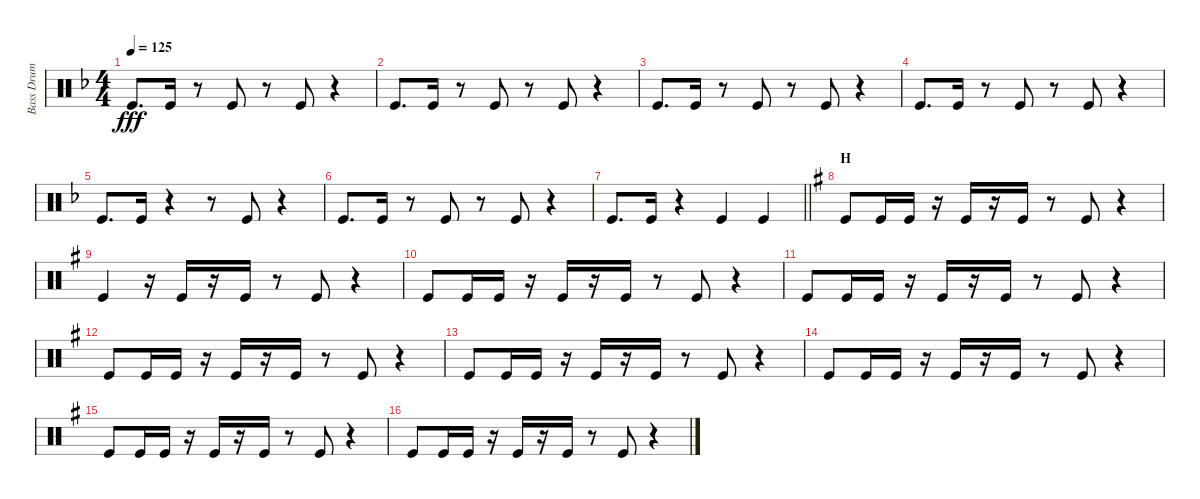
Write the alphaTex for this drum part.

\track ("Bass Drum" "Bass Drum") {instrument percussion}
\staff {score}
\articulation defaults
\ts (4 4)
\tempo 125
\clef neutral
\ks f "Kick (hit)".8{d dy fff} "Kick (hit)".16
r.8 "Kick (hit)".8 r.8 "Kick (hit)".8 r.4 |
"Kick (hit)".8{d} "Kick (hit)".16 r.8 "Kick (hit)".8 r.8 "Kick (hit)".8 r.4 |
"Kick (hit)".8{d} "Kick (hit)".16 r.8 "Kick (hit)".8 r.8 "Kick (hit)".8 r.4 |
"Kick (hit)".8{d} "Kick (hit)".16 r.8 "Kick (hit)".8 r.8 "Kick (hit)".8 r.4 |
"Kick (hit)".8{d} "Kick (hit)".16 r.4 r.8 "Kick (hit)".8 r.4 |
"Kick (hit)".8{d} "Kick (hit)".16 r.8 "Kick (hit)".8 r.8 "Kick (hit)".8 r.4 |
\barLineRight lightlight "Kick (hit)".8{d} "Kick (hit)".16
r.4 "Kick (hit)".4 "Kick (hit)".4 |
\section ("" "H")
\ks g "Kick (hit)".8 "Kick (hit)".16 "Kick (hit)".16
r.16 "Kick (hit)".16 r.16 "Kick (hit)".16 r.8 "Kick (hit)".8 r.4 |
"Kick (hit)".4 r.16 "Kick (hit)".16 r.16 "Kick (hit)".16 r.8 "Kick (hit)".8 r.4 |
"Kick (hit)".8 "Kick (hit)".16 "Kick (hit)".16 r.16 "Kick (hit)".16 r.16 "Kick (hit)".16 r.8 "Kick (hit)".8 r.4 |
"Kick (hit)".8 "Kick (hit)".16 "Kick (hit)".16 r.16 "Kick (hit)".16 r.16 "Kick (hit)".16 r.8 "Kick (hit)".8 r.4 |
"Kick (hit)".8 "Kick (hit)".16 "Kick (hit)".16 r.16 "Kick (hit)".16 r.16 "Kick (hit)".16 r.8 "Kick (hit)".8 r.4 |
"Kick (hit)".8 "Kick (hit)".16 "Kick (hit)".16 r.16 "Kick (hit)".16 r.16 "Kick (hit)".16 r.8 "Kick (hit)".8 r.4 |
"Kick (hit)".8 "Kick (hit)".16 "Kick (hit)".16 r.16 "Kick (hit)".16 r.16 "Kick (hit)".16 r.8 "Kick (hit)".8 r.4 |
"Kick (hit)".8 "Kick (hit)".16 "Kick (hit)".16 r.16 "Kick (hit)".16 r.16 "Kick (hit)".16 r.8 "Kick (hit)".8 r.4 |
"Kick (hit)".8 "Kick (hit)".16 "Kick (hit)".16 r.16 "Kick (hit)".16 r.16 "Kick (hit)".16 r.8 "Kick (hit)".8 r.4
